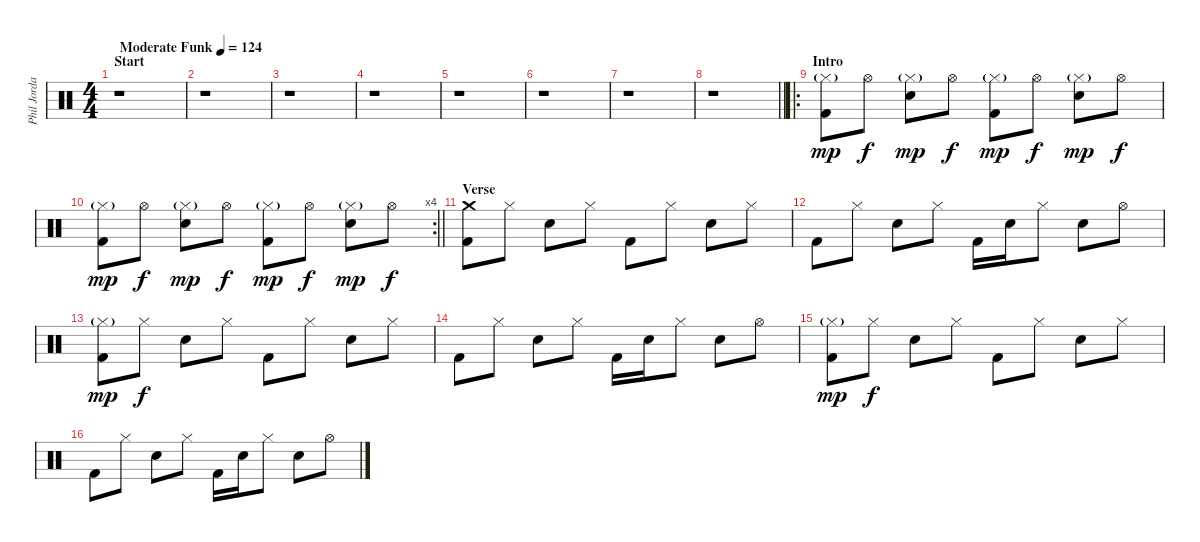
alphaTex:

\track ("Phil Jordan (Drums)" "Phil Jorda") {instrument percussion}
\staff {score}
\articulation defaults
\ts (4 4)
\section ("" "Start")
\tempo (124 "Moderate Funk")
\clef neutral
\ks c
r.1{dy mp} |
r.1 |
r.1 |
r.1 |
r.1 |
r.1 |
r.1 |
\barLineRight lightlight
r.1 |
\ro
\section ("" "Intro")
("Hi-Hat (closed)"{g} "Kick (hit) 2").8 "Hi-Hat (open)".8{dy f} ("Hi-Hat (closed)"{g} "Electric Snare (hit)").8{dy mp} "Hi-Hat (open)".8{dy f} ("Hi-Hat (closed)"{g} "Kick (hit) 2").8{dy mp} "Hi-Hat (open)".8{dy f} ("Hi-Hat (closed)"{g} "Electric Snare (hit)").8{dy mp} "Hi-Hat (open)".8{dy f} |
\rc 4
\barLineRight lightlight
("Hi-Hat (closed)"{g} "Kick (hit) 2").8{dy mp} "Hi-Hat (open)".8{dy f} ("Hi-Hat (closed)"{g} "Electric Snare (hit)").8{dy mp} "Hi-Hat (open)".8{dy f} ("Hi-Hat (closed)"{g} "Kick (hit) 2").8{dy mp} "Hi-Hat (open)".8{dy f} ("Hi-Hat (closed)"{g} "Electric Snare (hit)").8{dy mp} "Hi-Hat (open)".8{dy f} |
\section ("" "Verse")
("Crash medium (hit)" "Kick (hit) 2").8 "Hi-Hat (closed)".8 "Electric Snare (hit)".8 "Hi-Hat (closed)".8 "Kick (hit) 2".8 "Hi-Hat (closed)".8 "Electric Snare (hit)".8 "Hi-Hat (closed)".8 |
"Kick (hit) 2".8 "Hi-Hat (closed)".8 "Electric Snare (hit)".8 "Hi-Hat (closed)".8 "Kick (hit) 2".16 "Electric Snare (hit)".16 "Hi-Hat (closed)".8 "Electric Snare (hit)".8 "Hi-Hat (open)".8 |
("Hi-Hat (closed)"{g} "Kick (hit) 2").8{dy mp} "Hi-Hat (closed)".8{dy f} "Electric Snare (hit)".8 "Hi-Hat (closed)".8 "Kick (hit) 2".8 "Hi-Hat (closed)".8 "Electric Snare (hit)".8 "Hi-Hat (closed)".8 |
"Kick (hit) 2".8 "Hi-Hat (closed)".8 "Electric Snare (hit)".8 "Hi-Hat (closed)".8 "Kick (hit) 2".16 "Electric Snare (hit)".16 "Hi-Hat (closed)".8 "Electric Snare (hit)".8 "Hi-Hat (open)".8 |
("Hi-Hat (closed)"{g} "Kick (hit) 2").8{dy mp} "Hi-Hat (closed)".8{dy f} "Electric Snare (hit)".8 "Hi-Hat (closed)".8 "Kick (hit) 2".8 "Hi-Hat (closed)".8 "Electric Snare (hit)".8 "Hi-Hat (closed)".8 |
"Kick (hit) 2".8 "Hi-Hat (closed)".8 "Electric Snare (hit)".8 "Hi-Hat (closed)".8 "Kick (hit) 2".16 "Electric Snare (hit)".16 "Hi-Hat (closed)".8 "Electric Snare (hit)".8 "Hi-Hat (open)".8
